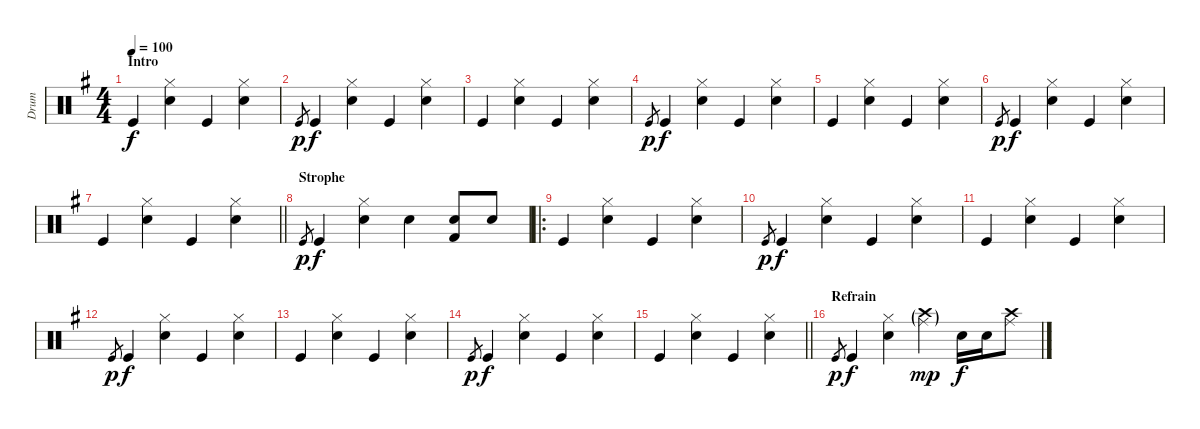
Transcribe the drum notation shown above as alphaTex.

\track ("Drum" "Drum") {instrument percussion}
\staff {score}
\articulation defaults
\ts (4 4)
\section ("" "Intro")
\tempo 100
\clef neutral
\ks eminor "Kick (hit)".4{dy f}
("Snare (hit) 2" "Hi-Hat (closed)").4 "Kick (hit)".4 ("Snare (hit) 2" "Hi-Hat (closed)").4 |
"Kick (hit)"{h}.8{gr dy p} "Kick (hit)".4{dy f} ("Snare (hit) 2" "Hi-Hat (closed)").4 "Kick (hit)".4 ("Snare (hit) 2" "Hi-Hat (closed)").4 |
"Kick (hit)".4 ("Snare (hit) 2" "Hi-Hat (closed)").4 "Kick (hit)".4 ("Snare (hit) 2" "Hi-Hat (closed)").4 |
"Kick (hit)"{h}.8{gr dy p} "Kick (hit)".4{dy f} ("Snare (hit) 2" "Hi-Hat (closed)").4 "Kick (hit)".4 ("Snare (hit) 2" "Hi-Hat (closed)").4 |
"Kick (hit)".4 ("Snare (hit) 2" "Hi-Hat (closed)").4 "Kick (hit)".4 ("Snare (hit) 2" "Hi-Hat (closed)").4 |
"Kick (hit)"{h}.8{gr dy p} "Kick (hit)".4{dy f} ("Snare (hit) 2" "Hi-Hat (closed)").4 "Kick (hit)".4 ("Snare (hit) 2" "Hi-Hat (closed)").4 |
\barLineRight lightlight "Kick (hit)".4
("Snare (hit) 2" "Hi-Hat (closed)").4 "Kick (hit)".4 ("Snare (hit) 2" "Hi-Hat (closed)").4 |
\section ("" "Strophe")
"Kick (hit)"{h}.8{gr dy p} "Kick (hit)".4{dy f volume 10} ("Snare (hit) 2" "Hi-Hat (closed)").4 "Snare (hit) 2".4 ("Snare (hit) 2" "Kick (hit) 2").8 "Snare (hit) 2".8 |
\ro "Kick (hit)".4{volume 11}
("Snare (hit) 2" "Hi-Hat (closed)").4 "Kick (hit)".4 ("Snare (hit) 2" "Hi-Hat (closed)").4 |
"Kick (hit)"{h}.8{gr dy p} "Kick (hit)".4{dy f} ("Snare (hit) 2" "Hi-Hat (closed)").4 "Kick (hit)".4 ("Snare (hit) 2" "Hi-Hat (closed)").4 |
"Kick (hit)".4 ("Snare (hit) 2" "Hi-Hat (closed)").4 "Kick (hit)".4 ("Snare (hit) 2" "Hi-Hat (closed)").4 |
"Kick (hit)"{h}.8{gr dy p} "Kick (hit)".4{dy f} ("Snare (hit) 2" "Hi-Hat (closed)").4 "Kick (hit)".4 ("Snare (hit) 2" "Hi-Hat (closed)").4 |
"Kick (hit)".4 ("Snare (hit) 2" "Hi-Hat (closed)").4 "Kick (hit)".4 ("Snare (hit) 2" "Hi-Hat (closed)").4 |
"Kick (hit)"{h}.8{gr dy p} "Kick (hit)".4{dy f} ("Snare (hit) 2" "Hi-Hat (closed)").4 "Kick (hit)".4 ("Snare (hit) 2" "Hi-Hat (closed)").4 |
\barLineRight lightlight "Kick (hit)".4
("Snare (hit) 2" "Hi-Hat (closed)").4 "Kick (hit)".4 ("Snare (hit) 2" "Hi-Hat (closed)").4 |
\section ("" "Refrain ")
"Kick (hit)"{h}.8{gr dy p} "Kick (hit)".4{dy f} ("Snare (hit) 2" "Hi-Hat (closed)").4 ("Ride (middle)"{g} "Crash high (hit)"{g}).4{dy mp} "Snare (hit) 2".16{dy f} "Snare (hit) 2".16 ("Crash high (hit)" "Ride (middle)").8
